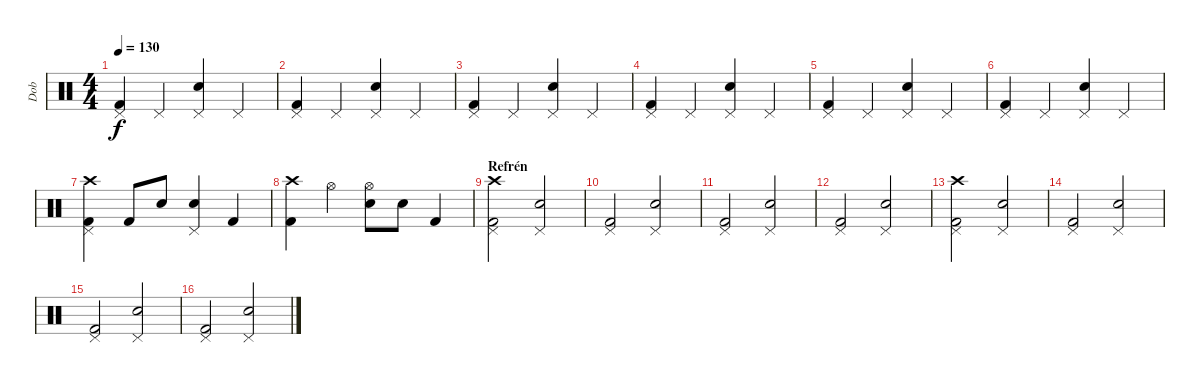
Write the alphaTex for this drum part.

\track ("Dob" "Dob") {instrument percussion}
\staff {score}
\articulation defaults
\ts (4 4)
\tempo 130
\clef neutral
\ks c
("Pedal Hi-Hat (hit)" "Kick (hit) 2").4{dy f} "Pedal Hi-Hat (hit)".4 ("Pedal Hi-Hat (hit)" "Snare (hit) 2").4 "Pedal Hi-Hat (hit)".4 |
("Pedal Hi-Hat (hit)" "Kick (hit) 2").4 "Pedal Hi-Hat (hit)".4 ("Pedal Hi-Hat (hit)" "Snare (hit) 2").4 "Pedal Hi-Hat (hit)".4 |
("Pedal Hi-Hat (hit)" "Kick (hit) 2").4 "Pedal Hi-Hat (hit)".4 ("Pedal Hi-Hat (hit)" "Snare (hit) 2").4 "Pedal Hi-Hat (hit)".4 |
("Pedal Hi-Hat (hit)" "Kick (hit) 2").4 "Pedal Hi-Hat (hit)".4 ("Pedal Hi-Hat (hit)" "Snare (hit) 2").4 "Pedal Hi-Hat (hit)".4 |
("Pedal Hi-Hat (hit)" "Kick (hit) 2").4 "Pedal Hi-Hat (hit)".4 ("Pedal Hi-Hat (hit)" "Snare (hit) 2").4 "Pedal Hi-Hat (hit)".4 |
("Pedal Hi-Hat (hit)" "Kick (hit) 2").4 "Pedal Hi-Hat (hit)".4 ("Pedal Hi-Hat (hit)" "Snare (hit) 2").4 "Pedal Hi-Hat (hit)".4 |
("Crash high (hit)" "Pedal Hi-Hat (hit)" "Kick (hit) 2").4 "Kick (hit) 2".8 "Snare (hit) 2".8 ("Pedal Hi-Hat (hit)" "Snare (hit) 2").4 "Kick (hit) 2".4 |
("Crash high (hit)" "Kick (hit) 2").4 "Hi-Hat (open)".4 ("Hi-Hat (open)" "Snare (hit) 2").8 "Snare (hit) 2".8 "Kick (hit) 2".4 |
\section ("" "Refrén")
("Crash high (hit)" "Pedal Hi-Hat (hit)" "Kick (hit) 2").2 ("Pedal Hi-Hat (hit)" "Snare (hit) 2").2 |
("Pedal Hi-Hat (hit)" "Kick (hit) 2").2 ("Pedal Hi-Hat (hit)" "Snare (hit) 2").2 |
("Pedal Hi-Hat (hit)" "Kick (hit) 2").2 ("Pedal Hi-Hat (hit)" "Snare (hit) 2").2 |
("Pedal Hi-Hat (hit)" "Kick (hit) 2").2 ("Pedal Hi-Hat (hit)" "Snare (hit) 2").2 |
("Crash high (hit)" "Pedal Hi-Hat (hit)" "Kick (hit) 2").2 ("Pedal Hi-Hat (hit)" "Snare (hit) 2").2 |
("Pedal Hi-Hat (hit)" "Kick (hit) 2").2 ("Pedal Hi-Hat (hit)" "Snare (hit) 2").2 |
("Pedal Hi-Hat (hit)" "Kick (hit) 2").2 ("Pedal Hi-Hat (hit)" "Snare (hit) 2").2 |
("Pedal Hi-Hat (hit)" "Kick (hit) 2").2 ("Pedal Hi-Hat (hit)" "Snare (hit) 2").2
